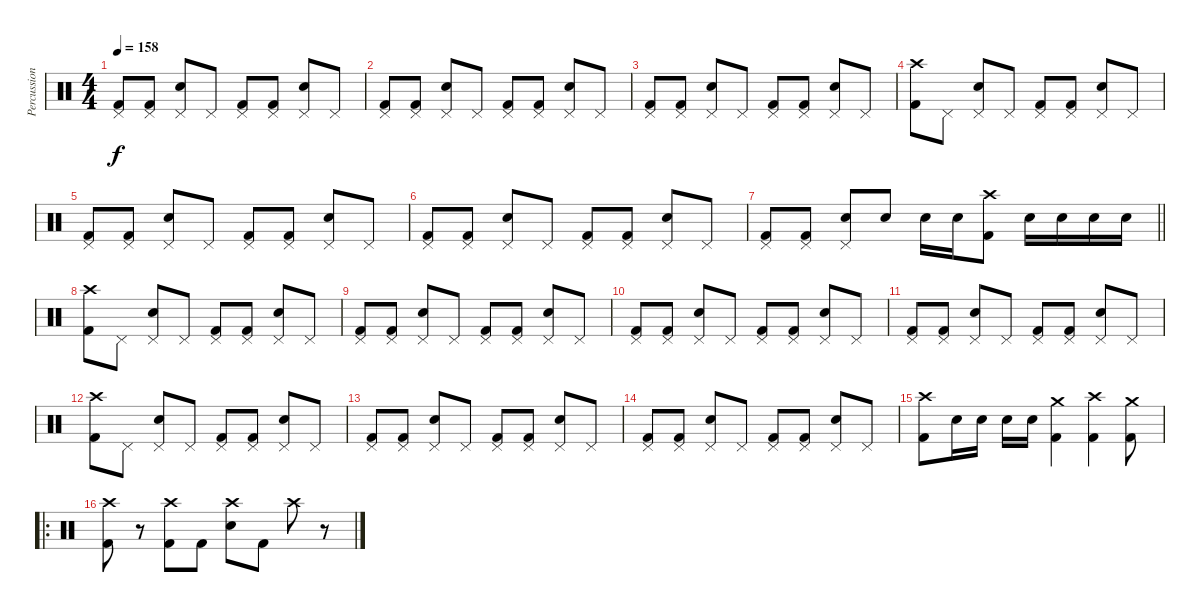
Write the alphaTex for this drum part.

\track ("Percussion" "Percussion") {instrument percussion}
\staff {score}
\articulation defaults
\ts (4 4)
\tempo 158
\clef neutral
\ks c
("Pedal Hi-Hat (hit)" "Kick (hit) 2").8{dy f} ("Pedal Hi-Hat (hit)" "Kick (hit) 2").8 ("Pedal Hi-Hat (hit)" "Snare (hit) 2").8 "Pedal Hi-Hat (hit)".8 ("Pedal Hi-Hat (hit)" "Kick (hit) 2").8 ("Pedal Hi-Hat (hit)" "Kick (hit) 2").8 ("Pedal Hi-Hat (hit)" "Snare (hit) 2").8 "Pedal Hi-Hat (hit)".8 |
("Pedal Hi-Hat (hit)" "Kick (hit) 2").8 ("Pedal Hi-Hat (hit)" "Kick (hit) 2").8 ("Pedal Hi-Hat (hit)" "Snare (hit) 2").8 "Pedal Hi-Hat (hit)".8 ("Pedal Hi-Hat (hit)" "Kick (hit) 2").8 ("Pedal Hi-Hat (hit)" "Kick (hit) 2").8 ("Pedal Hi-Hat (hit)" "Snare (hit) 2").8 "Pedal Hi-Hat (hit)".8 |
("Pedal Hi-Hat (hit)" "Kick (hit) 2").8 ("Pedal Hi-Hat (hit)" "Kick (hit) 2").8 ("Pedal Hi-Hat (hit)" "Snare (hit) 2").8 "Pedal Hi-Hat (hit)".8 ("Pedal Hi-Hat (hit)" "Kick (hit) 2").8 ("Pedal Hi-Hat (hit)" "Kick (hit) 2").8 ("Pedal Hi-Hat (hit)" "Snare (hit) 2").8 "Pedal Hi-Hat (hit)".8 |
("Crash high (hit)" "Kick (hit) 2").8 "Pedal Hi-Hat (hit)".8 ("Pedal Hi-Hat (hit)" "Snare (hit) 2").8 "Pedal Hi-Hat (hit)".8 ("Pedal Hi-Hat (hit)" "Kick (hit) 2").8 ("Pedal Hi-Hat (hit)" "Kick (hit) 2").8 ("Pedal Hi-Hat (hit)" "Snare (hit) 2").8 "Pedal Hi-Hat (hit)".8 |
("Pedal Hi-Hat (hit)" "Kick (hit) 2").8 ("Pedal Hi-Hat (hit)" "Kick (hit) 2").8 ("Pedal Hi-Hat (hit)" "Snare (hit) 2").8 "Pedal Hi-Hat (hit)".8 ("Pedal Hi-Hat (hit)" "Kick (hit) 2").8 ("Pedal Hi-Hat (hit)" "Kick (hit) 2").8 ("Pedal Hi-Hat (hit)" "Snare (hit) 2").8 "Pedal Hi-Hat (hit)".8 |
("Pedal Hi-Hat (hit)" "Kick (hit) 2").8 ("Pedal Hi-Hat (hit)" "Kick (hit) 2").8 ("Pedal Hi-Hat (hit)" "Snare (hit) 2").8 "Pedal Hi-Hat (hit)".8 ("Pedal Hi-Hat (hit)" "Kick (hit) 2").8 ("Pedal Hi-Hat (hit)" "Kick (hit) 2").8 ("Pedal Hi-Hat (hit)" "Snare (hit) 2").8 "Pedal Hi-Hat (hit)".8 |
\barLineRight lightlight
("Pedal Hi-Hat (hit)" "Kick (hit) 2").8 ("Pedal Hi-Hat (hit)" "Kick (hit) 2").8 ("Pedal Hi-Hat (hit)" "Snare (hit) 2").8 "Snare (hit) 2".8 "Snare (hit) 2".16 "Snare (hit) 2".16 ("Crash high (hit)" "Kick (hit) 2").8 "Snare (hit) 2".16 "Snare (hit) 2".16 "Snare (hit) 2".16 "Snare (hit) 2".16 |
("Crash high (hit)" "Kick (hit) 2").8 "Pedal Hi-Hat (hit)".8 ("Pedal Hi-Hat (hit)" "Snare (hit) 2").8 "Pedal Hi-Hat (hit)".8 ("Pedal Hi-Hat (hit)" "Kick (hit) 2").8 ("Pedal Hi-Hat (hit)" "Kick (hit) 2").8 ("Pedal Hi-Hat (hit)" "Snare (hit) 2").8 "Pedal Hi-Hat (hit)".8 |
("Pedal Hi-Hat (hit)" "Kick (hit) 2").8 ("Pedal Hi-Hat (hit)" "Kick (hit) 2").8 ("Pedal Hi-Hat (hit)" "Snare (hit) 2").8 "Pedal Hi-Hat (hit)".8 ("Pedal Hi-Hat (hit)" "Kick (hit) 2").8 ("Pedal Hi-Hat (hit)" "Kick (hit) 2").8 ("Pedal Hi-Hat (hit)" "Snare (hit) 2").8 "Pedal Hi-Hat (hit)".8 |
("Pedal Hi-Hat (hit)" "Kick (hit) 2").8 ("Pedal Hi-Hat (hit)" "Kick (hit) 2").8 ("Pedal Hi-Hat (hit)" "Snare (hit) 2").8 "Pedal Hi-Hat (hit)".8 ("Pedal Hi-Hat (hit)" "Kick (hit) 2").8 ("Pedal Hi-Hat (hit)" "Kick (hit) 2").8 ("Pedal Hi-Hat (hit)" "Snare (hit) 2").8 "Pedal Hi-Hat (hit)".8 |
("Pedal Hi-Hat (hit)" "Kick (hit) 2").8 ("Pedal Hi-Hat (hit)" "Kick (hit) 2").8 ("Pedal Hi-Hat (hit)" "Snare (hit) 2").8 "Pedal Hi-Hat (hit)".8 ("Pedal Hi-Hat (hit)" "Kick (hit) 2").8 ("Pedal Hi-Hat (hit)" "Kick (hit) 2").8 ("Pedal Hi-Hat (hit)" "Snare (hit) 2").8 "Pedal Hi-Hat (hit)".8 |
("Crash high (hit)" "Kick (hit) 2").8 "Pedal Hi-Hat (hit)".8 ("Pedal Hi-Hat (hit)" "Snare (hit) 2").8 "Pedal Hi-Hat (hit)".8 ("Pedal Hi-Hat (hit)" "Kick (hit) 2").8 ("Pedal Hi-Hat (hit)" "Kick (hit) 2").8 ("Pedal Hi-Hat (hit)" "Snare (hit) 2").8 "Pedal Hi-Hat (hit)".8 |
("Pedal Hi-Hat (hit)" "Kick (hit) 2").8 ("Pedal Hi-Hat (hit)" "Kick (hit) 2").8 ("Pedal Hi-Hat (hit)" "Snare (hit) 2").8 "Pedal Hi-Hat (hit)".8 ("Pedal Hi-Hat (hit)" "Kick (hit) 2").8 ("Pedal Hi-Hat (hit)" "Kick (hit) 2").8 ("Pedal Hi-Hat (hit)" "Snare (hit) 2").8 "Pedal Hi-Hat (hit)".8 |
("Pedal Hi-Hat (hit)" "Kick (hit) 2").8 ("Pedal Hi-Hat (hit)" "Kick (hit) 2").8 ("Pedal Hi-Hat (hit)" "Snare (hit) 2").8 "Pedal Hi-Hat (hit)".8 ("Pedal Hi-Hat (hit)" "Kick (hit) 2").8 ("Pedal Hi-Hat (hit)" "Kick (hit) 2").8 ("Pedal Hi-Hat (hit)" "Snare (hit) 2").8 "Pedal Hi-Hat (hit)".8 |
("Crash high (hit)" "Kick (hit) 2").8 "Snare (hit) 2".16 "Snare (hit) 2".16 "Snare (hit) 2".16 "Snare (hit) 2".16 ("Crash medium (hit)" "Kick (hit) 2").4 ("Crash high (hit)" "Kick (hit) 2").4 ("Crash medium (hit)" "Kick (hit) 2").8 |
\ro
("Crash high (hit)" "Kick (hit) 2").8 r.8 ("Crash high (hit)" "Kick (hit) 2").8 "Kick (hit) 2".8 ("Crash high (hit)" "Snare (hit) 2").8 "Kick (hit) 2".8 "Crash high (hit)".8 r.8
